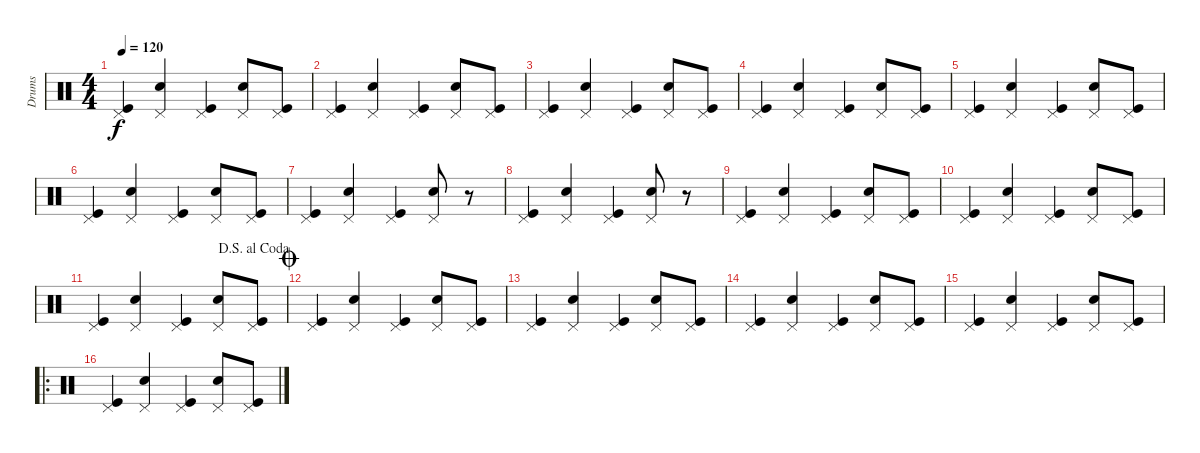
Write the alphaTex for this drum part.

\track ("Drums" "Drums") {instrument percussion}
\staff {score}
\articulation defaults
\ts (4 4)
\tempo 120
\clef neutral
\ks c
("Pedal Hi-Hat (hit)" "Kick (hit)").4{dy f} ("Pedal Hi-Hat (hit)" "Electric Snare (hit)").4 ("Pedal Hi-Hat (hit)" "Kick (hit)").4 ("Pedal Hi-Hat (hit)" "Electric Snare (hit)").8 ("Pedal Hi-Hat (hit)" "Kick (hit)").8 |
("Pedal Hi-Hat (hit)" "Kick (hit)").4 ("Pedal Hi-Hat (hit)" "Electric Snare (hit)").4 ("Pedal Hi-Hat (hit)" "Kick (hit)").4 ("Pedal Hi-Hat (hit)" "Electric Snare (hit)").8 ("Pedal Hi-Hat (hit)" "Kick (hit)").8 |
("Pedal Hi-Hat (hit)" "Kick (hit)").4 ("Pedal Hi-Hat (hit)" "Electric Snare (hit)").4 ("Pedal Hi-Hat (hit)" "Kick (hit)").4 ("Pedal Hi-Hat (hit)" "Electric Snare (hit)").8 ("Pedal Hi-Hat (hit)" "Kick (hit)").8 |
("Pedal Hi-Hat (hit)" "Kick (hit)").4 ("Pedal Hi-Hat (hit)" "Electric Snare (hit)").4 ("Pedal Hi-Hat (hit)" "Kick (hit)").4 ("Pedal Hi-Hat (hit)" "Electric Snare (hit)").8 ("Pedal Hi-Hat (hit)" "Kick (hit)").8 |
("Pedal Hi-Hat (hit)" "Kick (hit)").4 ("Pedal Hi-Hat (hit)" "Electric Snare (hit)").4 ("Pedal Hi-Hat (hit)" "Kick (hit)").4 ("Pedal Hi-Hat (hit)" "Electric Snare (hit)").8 ("Pedal Hi-Hat (hit)" "Kick (hit)").8 |
("Pedal Hi-Hat (hit)" "Kick (hit)").4 ("Pedal Hi-Hat (hit)" "Electric Snare (hit)").4 ("Pedal Hi-Hat (hit)" "Kick (hit)").4 ("Pedal Hi-Hat (hit)" "Electric Snare (hit)").8 ("Pedal Hi-Hat (hit)" "Kick (hit)").8 |
("Pedal Hi-Hat (hit)" "Kick (hit)").4 ("Pedal Hi-Hat (hit)" "Electric Snare (hit)").4 ("Pedal Hi-Hat (hit)" "Kick (hit)").4 ("Pedal Hi-Hat (hit)" "Electric Snare (hit)").8 r.8 |
("Pedal Hi-Hat (hit)" "Kick (hit)").4 ("Pedal Hi-Hat (hit)" "Electric Snare (hit)").4 ("Pedal Hi-Hat (hit)" "Kick (hit)").4 ("Pedal Hi-Hat (hit)" "Electric Snare (hit)").8 r.8 |
("Pedal Hi-Hat (hit)" "Kick (hit)").4 ("Pedal Hi-Hat (hit)" "Electric Snare (hit)").4 ("Pedal Hi-Hat (hit)" "Kick (hit)").4 ("Electric Snare (hit)" "Pedal Hi-Hat (hit)").8 ("Kick (hit)" "Pedal Hi-Hat (hit)").8 |
("Pedal Hi-Hat (hit)" "Kick (hit)").4 ("Pedal Hi-Hat (hit)" "Electric Snare (hit)").4 ("Pedal Hi-Hat (hit)" "Kick (hit)").4 ("Electric Snare (hit)" "Pedal Hi-Hat (hit)").8 ("Kick (hit)" "Pedal Hi-Hat (hit)").8 |
\jump dalsegnoalcoda
("Pedal Hi-Hat (hit)" "Kick (hit)").4 ("Pedal Hi-Hat (hit)" "Electric Snare (hit)").4 ("Pedal Hi-Hat (hit)" "Kick (hit)").4 ("Pedal Hi-Hat (hit)" "Electric Snare (hit)").8 ("Pedal Hi-Hat (hit)" "Kick (hit)").8 |
\jump coda
("Pedal Hi-Hat (hit)" "Kick (hit)").4 ("Pedal Hi-Hat (hit)" "Electric Snare (hit)").4 ("Pedal Hi-Hat (hit)" "Kick (hit)").4 ("Pedal Hi-Hat (hit)" "Electric Snare (hit)").8 ("Pedal Hi-Hat (hit)" "Kick (hit)").8 |
("Pedal Hi-Hat (hit)" "Kick (hit)").4 ("Pedal Hi-Hat (hit)" "Electric Snare (hit)").4 ("Pedal Hi-Hat (hit)" "Kick (hit)").4 ("Pedal Hi-Hat (hit)" "Electric Snare (hit)").8 ("Pedal Hi-Hat (hit)" "Kick (hit)").8 |
("Pedal Hi-Hat (hit)" "Kick (hit)").4 ("Pedal Hi-Hat (hit)" "Electric Snare (hit)").4 ("Pedal Hi-Hat (hit)" "Kick (hit)").4 ("Pedal Hi-Hat (hit)" "Electric Snare (hit)").8 ("Pedal Hi-Hat (hit)" "Kick (hit)").8 |
("Pedal Hi-Hat (hit)" "Kick (hit)").4 ("Pedal Hi-Hat (hit)" "Electric Snare (hit)").4 ("Pedal Hi-Hat (hit)" "Kick (hit)").4 ("Pedal Hi-Hat (hit)" "Electric Snare (hit)").8 ("Pedal Hi-Hat (hit)" "Kick (hit)").8 |
\ro
("Pedal Hi-Hat (hit)" "Kick (hit)").4 ("Pedal Hi-Hat (hit)" "Electric Snare (hit)").4 ("Pedal Hi-Hat (hit)" "Kick (hit)").4 ("Pedal Hi-Hat (hit)" "Electric Snare (hit)").8 ("Pedal Hi-Hat (hit)" "Kick (hit)").8
